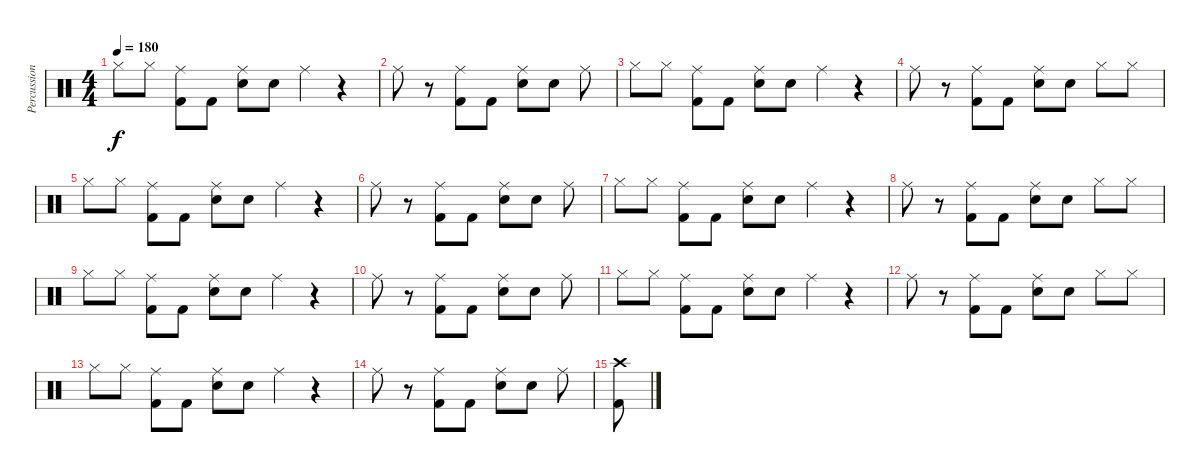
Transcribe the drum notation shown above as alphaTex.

\track ("Percussion" "Percussion") {instrument percussion}
\staff {score}
\articulation defaults
\ts (4 4)
\tempo 180
\clef neutral
\ks c "Hi-Hat (closed)".8{dy f} "Hi-Hat (closed)".8
("Ride (middle)" "Kick (hit) 2").8 "Kick (hit) 2".8 ("Ride (middle)" "Snare (hit) 2").8 "Snare (hit) 2".8 "Ride (middle)".4 r.4 |
"Ride (middle)".8 r.8 ("Ride (middle)" "Kick (hit) 2").8 "Kick (hit) 2".8 ("Ride (middle)" "Snare (hit) 2").8 "Snare (hit) 2".8 "Ride (middle)".8 |
"Hi-Hat (closed)".8 "Hi-Hat (closed)".8 ("Ride (middle)" "Kick (hit) 2").8 "Kick (hit) 2".8 ("Ride (middle)" "Snare (hit) 2").8 "Snare (hit) 2".8 "Ride (middle)".4 r.4 |
"Ride (middle)".8 r.8 ("Ride (middle)" "Kick (hit) 2").8 "Kick (hit) 2".8 ("Ride (middle)" "Snare (hit) 2").8 "Snare (hit) 2".8 "Hi-Hat (closed)".8 "Hi-Hat (closed)".8 |
"Hi-Hat (closed)".8 "Hi-Hat (closed)".8 ("Ride (middle)" "Kick (hit) 2").8 "Kick (hit) 2".8 ("Ride (middle)" "Snare (hit) 2").8 "Snare (hit) 2".8 "Ride (middle)".4 r.4 |
"Ride (middle)".8 r.8 ("Ride (middle)" "Kick (hit) 2").8 "Kick (hit) 2".8 ("Ride (middle)" "Snare (hit) 2").8 "Snare (hit) 2".8 "Ride (middle)".8 |
"Hi-Hat (closed)".8 "Hi-Hat (closed)".8 ("Ride (middle)" "Kick (hit) 2").8 "Kick (hit) 2".8 ("Ride (middle)" "Snare (hit) 2").8 "Snare (hit) 2".8 "Ride (middle)".4 r.4 |
"Ride (middle)".8 r.8 ("Ride (middle)" "Kick (hit) 2").8 "Kick (hit) 2".8 ("Ride (middle)" "Snare (hit) 2").8 "Snare (hit) 2".8 "Hi-Hat (closed)".8 "Hi-Hat (closed)".8 |
"Hi-Hat (closed)".8 "Hi-Hat (closed)".8 ("Ride (middle)" "Kick (hit) 2").8 "Kick (hit) 2".8 ("Ride (middle)" "Snare (hit) 2").8 "Snare (hit) 2".8 "Ride (middle)".4 r.4 |
"Ride (middle)".8 r.8 ("Ride (middle)" "Kick (hit) 2").8 "Kick (hit) 2".8 ("Ride (middle)" "Snare (hit) 2").8 "Snare (hit) 2".8 "Ride (middle)".8 |
"Hi-Hat (closed)".8 "Hi-Hat (closed)".8 ("Ride (middle)" "Kick (hit) 2").8 "Kick (hit) 2".8 ("Ride (middle)" "Snare (hit) 2").8 "Snare (hit) 2".8 "Ride (middle)".4 r.4 |
"Ride (middle)".8 r.8 ("Ride (middle)" "Kick (hit) 2").8 "Kick (hit) 2".8 ("Ride (middle)" "Snare (hit) 2").8 "Snare (hit) 2".8 "Hi-Hat (closed)".8 "Hi-Hat (closed)".8 |
"Hi-Hat (closed)".8 "Hi-Hat (closed)".8 ("Ride (middle)" "Kick (hit) 2").8 "Kick (hit) 2".8 ("Ride (middle)" "Snare (hit) 2").8 "Snare (hit) 2".8 "Ride (middle)".4 r.4 |
"Ride (middle)".8 r.8 ("Ride (middle)" "Kick (hit) 2").8 "Kick (hit) 2".8 ("Ride (middle)" "Snare (hit) 2").8 "Snare (hit) 2".8 "Ride (middle)".8 |
("Crash high (hit)" "Kick (hit) 2").8
